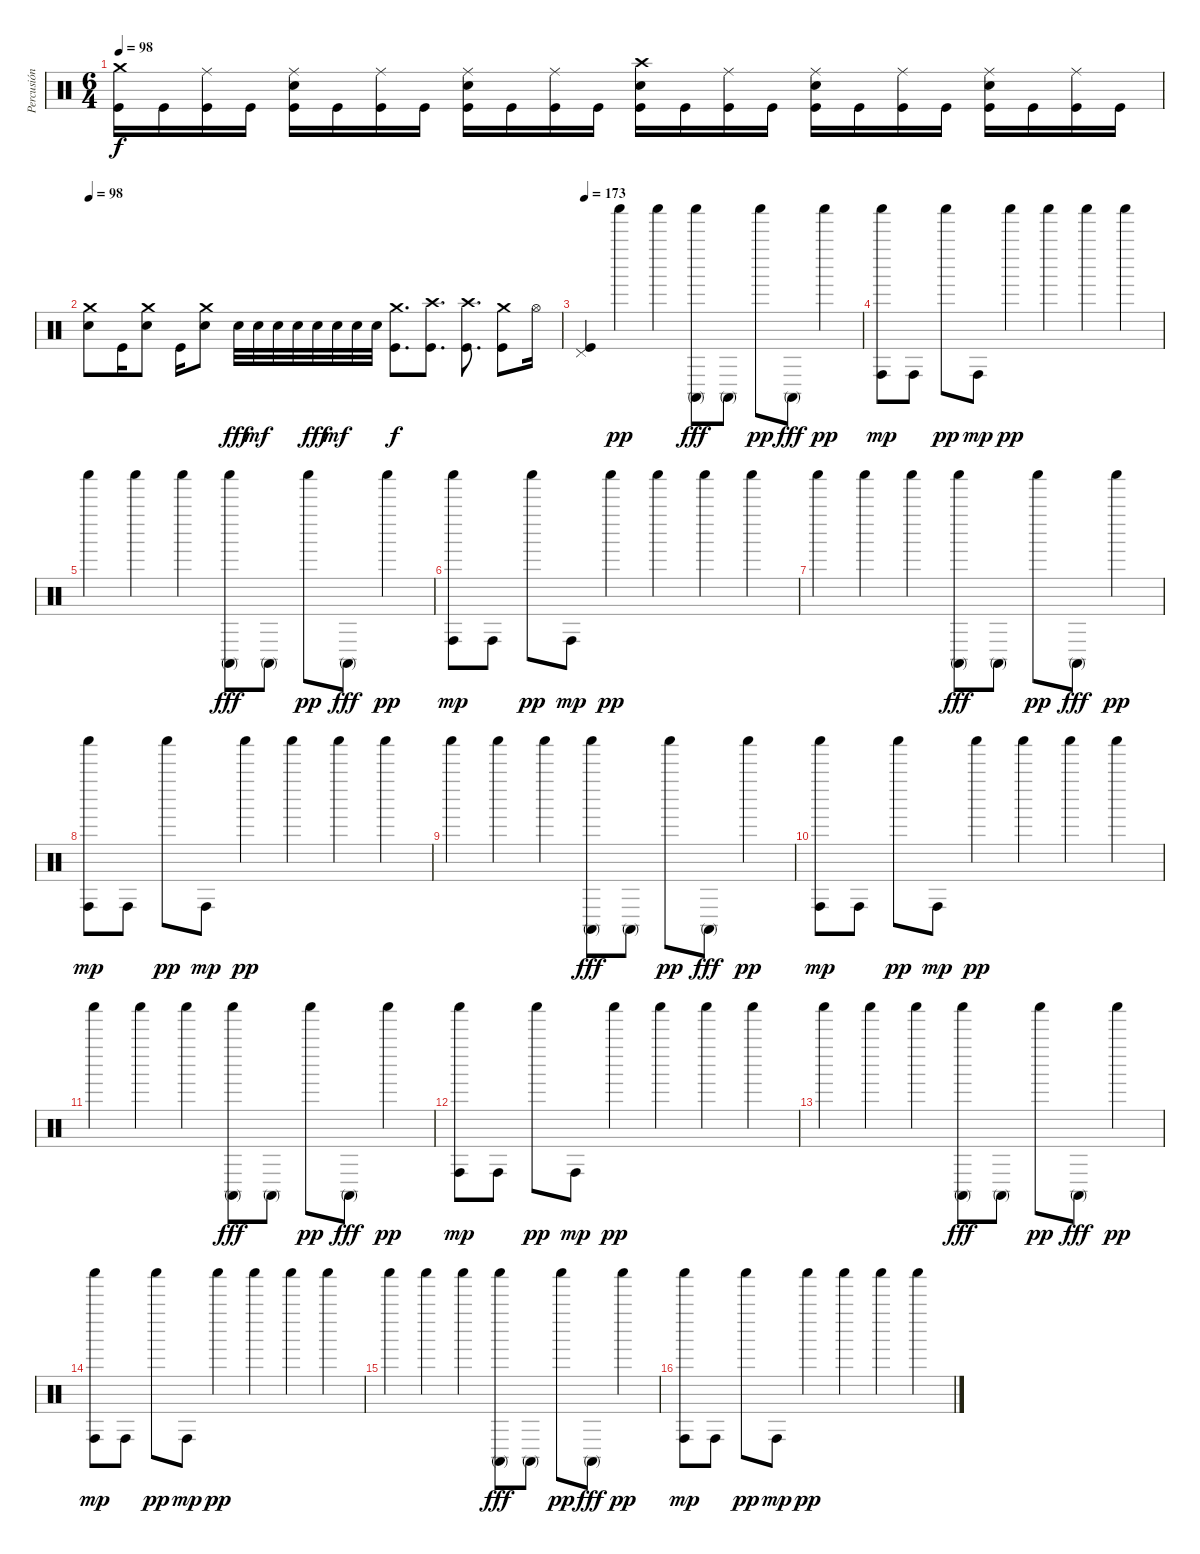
\track ("Percusión" "Percusión") {instrument percussion}
\staff {score}
\articulation defaults
\ts (6 4)
\tempo 98
\clef neutral
\ks c
("Crash medium (hit)" "Kick (hit)").16{dy f} "Kick (hit)".16 ("Ride (middle)" "Kick (hit)").16 "Kick (hit)".16 ("Ride (middle)" "Electric Snare (hit)" "Kick (hit)").16 "Kick (hit)".16 ("Ride (middle)" "Kick (hit)").16 "Kick (hit)".16 ("Ride (middle)" "Electric Snare (hit)" "Kick (hit)").16 "Kick (hit)".16 ("Ride (middle)" "Kick (hit)").16 "Kick (hit)".16 ("Crash high (hit)" "Electric Snare (hit)" "Kick (hit)").16 "Kick (hit)".16 ("Ride (middle)" "Kick (hit)").16 "Kick (hit)".16 ("Ride (middle)" "Electric Snare (hit)" "Kick (hit)").16 "Kick (hit)".16 ("Ride (middle)" "Kick (hit)").16 "Kick (hit)".16 ("Ride (middle)" "Electric Snare (hit)" "Kick (hit)").16 "Kick (hit)".16 ("Ride (middle)" "Kick (hit)").16 "Kick (hit)".16 |
\tempo 98
("Crash medium (hit)" "Electric Snare (hit)").8 "Kick (hit)".16 ("Crash medium (hit)" "Electric Snare (hit)").8 "Kick (hit)".16 ("Crash medium (hit)" "Electric Snare (hit)").8 "Electric Snare (hit)".32{dy fff} "Electric Snare (hit)".32{dy mf} "Electric Snare (hit)".32 "Electric Snare (hit)".32 "Electric Snare (hit)".32{dy fff} "Electric Snare (hit)".32{dy mf} "Electric Snare (hit)".32 "Electric Snare (hit)".32 ("Crash medium (hit)" "Kick (hit)").8{d dy f} ("Crash high (hit)" "Kick (hit)").8{d} ("Crash high (hit)" "Kick (hit)").8{d} ("Crash medium (hit)" "Kick (hit)").8 "Hi-Hat (open)".16 |
\tempo 173
("Pedal Hi-Hat (hit)" "Kick (hit)").4 "Shaker (hit)".4{dy pp} "Shaker (hit)".4 ("Shaker (hit)" "Conga high (mute)").8{dy fff} "Conga high (mute)".8 "Shaker (hit)".8{dy pp} "Conga high (mute)".8{dy fff} "Shaker (hit)".4{dy pp} |
("Shaker (hit)" "Conga high (hit)").8{dy mp} "Conga high (hit)".8 "Shaker (hit)".8{dy pp} "Conga high (hit)".8{dy mp} "Shaker (hit)".4{dy pp} "Shaker (hit)".4 "Shaker (hit)".4 "Shaker (hit)".4 |
"Shaker (hit)".4 "Shaker (hit)".4 "Shaker (hit)".4 ("Shaker (hit)" "Conga high (mute)").8{dy fff} "Conga high (mute)".8 "Shaker (hit)".8{dy pp} "Conga high (mute)".8{dy fff} "Shaker (hit)".4{dy pp} |
("Shaker (hit)" "Conga high (hit)").8{dy mp} "Conga high (hit)".8 "Shaker (hit)".8{dy pp} "Conga high (hit)".8{dy mp} "Shaker (hit)".4{dy pp} "Shaker (hit)".4 "Shaker (hit)".4 "Shaker (hit)".4 |
"Shaker (hit)".4 "Shaker (hit)".4 "Shaker (hit)".4 ("Shaker (hit)" "Conga high (mute)").8{dy fff} "Conga high (mute)".8 "Shaker (hit)".8{dy pp} "Conga high (mute)".8{dy fff} "Shaker (hit)".4{dy pp} |
("Shaker (hit)" "Conga high (hit)").8{dy mp} "Conga high (hit)".8 "Shaker (hit)".8{dy pp} "Conga high (hit)".8{dy mp} "Shaker (hit)".4{dy pp} "Shaker (hit)".4 "Shaker (hit)".4 "Shaker (hit)".4 |
"Shaker (hit)".4 "Shaker (hit)".4 "Shaker (hit)".4 ("Shaker (hit)" "Conga high (mute)").8{dy fff} "Conga high (mute)".8 "Shaker (hit)".8{dy pp} "Conga high (mute)".8{dy fff} "Shaker (hit)".4{dy pp} |
("Shaker (hit)" "Conga high (hit)").8{dy mp} "Conga high (hit)".8 "Shaker (hit)".8{dy pp} "Conga high (hit)".8{dy mp} "Shaker (hit)".4{dy pp} "Shaker (hit)".4 "Shaker (hit)".4 "Shaker (hit)".4 |
"Shaker (hit)".4 "Shaker (hit)".4 "Shaker (hit)".4 ("Shaker (hit)" "Conga high (mute)").8{dy fff} "Conga high (mute)".8 "Shaker (hit)".8{dy pp} "Conga high (mute)".8{dy fff} "Shaker (hit)".4{dy pp} |
("Shaker (hit)" "Conga high (hit)").8{dy mp} "Conga high (hit)".8 "Shaker (hit)".8{dy pp} "Conga high (hit)".8{dy mp} "Shaker (hit)".4{dy pp} "Shaker (hit)".4 "Shaker (hit)".4 "Shaker (hit)".4 |
"Shaker (hit)".4 "Shaker (hit)".4 "Shaker (hit)".4 ("Shaker (hit)" "Conga high (mute)").8{dy fff} "Conga high (mute)".8 "Shaker (hit)".8{dy pp} "Conga high (mute)".8{dy fff} "Shaker (hit)".4{dy pp} |
("Shaker (hit)" "Conga high (hit)").8{dy mp} "Conga high (hit)".8 "Shaker (hit)".8{dy pp} "Conga high (hit)".8{dy mp} "Shaker (hit)".4{dy pp} "Shaker (hit)".4 "Shaker (hit)".4 "Shaker (hit)".4 |
"Shaker (hit)".4 "Shaker (hit)".4 "Shaker (hit)".4 ("Shaker (hit)" "Conga high (mute)").8{dy fff} "Conga high (mute)".8 "Shaker (hit)".8{dy pp} "Conga high (mute)".8{dy fff} "Shaker (hit)".4{dy pp} |
("Shaker (hit)" "Conga high (hit)").8{dy mp} "Conga high (hit)".8 "Shaker (hit)".8{dy pp} "Conga high (hit)".8{dy mp} "Shaker (hit)".4{dy pp} "Shaker (hit)".4 "Shaker (hit)".4 "Shaker (hit)".4
